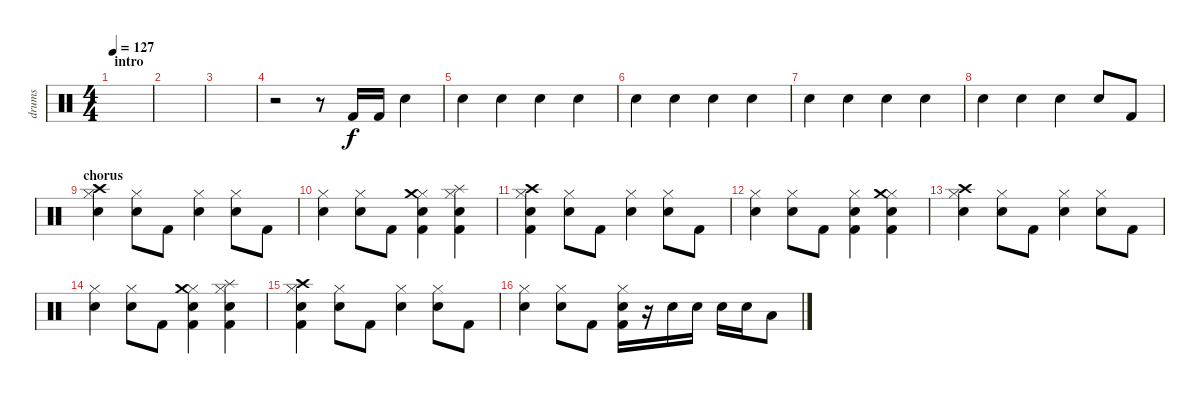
\track ("drums" "drums") {instrument percussion}
\staff {score}
\articulation defaults
\ts (4 4)
\section ("" "intro")
\tempo 127
\clef neutral
\ks c
|
|
|
r.2 r.8 "Kick (hit) 2".16 "Kick (hit) 2".16 "Electric Snare (hit)".4 |
"Electric Snare (hit)".4 "Electric Snare (hit)".4 "Electric Snare (hit)".4 "Electric Snare (hit)".4 |
"Electric Snare (hit)".4 "Electric Snare (hit)".4 "Electric Snare (hit)".4 "Electric Snare (hit)".4 |
"Electric Snare (hit)".4 "Electric Snare (hit)".4 "Electric Snare (hit)".4 "Electric Snare (hit)".4 |
"Electric Snare (hit)".4 "Electric Snare (hit)".4 "Electric Snare (hit)".4 "Electric Snare (hit)".8 "Kick (hit) 2".8 |
\section ("" "chorus")
("Electric Snare (hit)" "Hi-Hat (closed)" "Crash high (hit)").4 ("Electric Snare (hit)" "Hi-Hat (closed)").8 "Kick (hit) 2".8 ("Electric Snare (hit)" "Hi-Hat (closed)").4 ("Electric Snare (hit)" "Hi-Hat (closed)").8 "Kick (hit) 2".8 |
("Electric Snare (hit)" "Hi-Hat (closed)").4 ("Electric Snare (hit)" "Hi-Hat (closed)").8 "Kick (hit) 2".8 ("Kick (hit) 2" "Electric Snare (hit)" "Hi-Hat (closed)" "Crash medium (hit)").4 ("Kick (hit) 2" "Electric Snare (hit)" "Hi-Hat (closed)" "Splash (hit)").4 |
("Kick (hit) 2" "Electric Snare (hit)" "Hi-Hat (closed)" "Crash high (hit)").4 ("Electric Snare (hit)" "Hi-Hat (closed)").8 "Kick (hit) 2".8 ("Electric Snare (hit)" "Hi-Hat (closed)").4 ("Electric Snare (hit)" "Hi-Hat (closed)").8 "Kick (hit) 2".8 |
("Electric Snare (hit)" "Hi-Hat (closed)").4 ("Electric Snare (hit)" "Hi-Hat (closed)").8 "Kick (hit) 2".8 ("Kick (hit) 2" "Electric Snare (hit)" "Hi-Hat (closed)").4 ("Kick (hit) 2" "Electric Snare (hit)" "Hi-Hat (closed)" "Crash medium (hit)").4 |
("Electric Snare (hit)" "Hi-Hat (closed)" "Crash high (hit)").4 ("Electric Snare (hit)" "Hi-Hat (closed)").8 "Kick (hit) 2".8 ("Electric Snare (hit)" "Hi-Hat (closed)").4 ("Electric Snare (hit)" "Hi-Hat (closed)").8 "Kick (hit) 2".8 |
("Electric Snare (hit)" "Hi-Hat (closed)").4 ("Electric Snare (hit)" "Hi-Hat (closed)").8 "Kick (hit) 2".8 ("Kick (hit) 2" "Electric Snare (hit)" "Hi-Hat (closed)" "Crash medium (hit)").4 ("Kick (hit) 2" "Electric Snare (hit)" "Hi-Hat (closed)" "Splash (hit)").4 |
("Kick (hit) 2" "Electric Snare (hit)" "Hi-Hat (closed)" "Crash high (hit)").4 ("Electric Snare (hit)" "Hi-Hat (closed)").8 "Kick (hit) 2".8 ("Electric Snare (hit)" "Hi-Hat (closed)").4 ("Electric Snare (hit)" "Hi-Hat (closed)").8 "Kick (hit) 2".8 |
("Electric Snare (hit)" "Hi-Hat (closed)").4 ("Electric Snare (hit)" "Hi-Hat (closed)").8 "Kick (hit) 2".8 ("Kick (hit) 2" "Electric Snare (hit)" "Hi-Hat (closed)").16 r.16 "Electric Snare (hit)".16 "Electric Snare (hit)".16 "Electric Snare (hit)".16 "Electric Snare (hit)".16 "Low Tom (hit)".8
